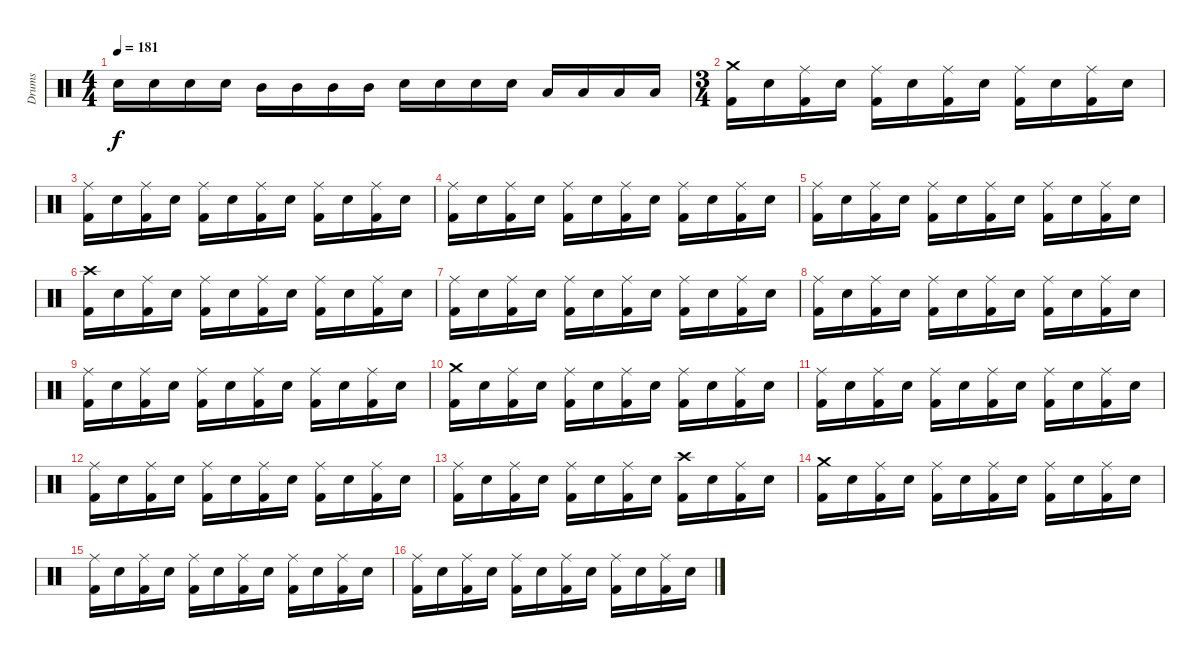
\track ("Drums" "Drums") {instrument percussion}
\staff {score}
\articulation defaults
\ts (4 4)
\tempo 181
\clef neutral
\ks c "Electric Snare (hit)".16{dy f} "Electric Snare (hit)".16 "Electric Snare (hit)".16 "Electric Snare (hit)".16 "Mid Tom (hit)".16 "Mid Tom (hit)".16 "Mid Tom (hit)".16 "Mid Tom (hit)".16 "Electric Snare (hit)".16 "Electric Snare (hit)".16 "Electric Snare (hit)".16 "Electric Snare (hit)".16 "Low Tom (hit)".16 "Low Tom (hit)".16 "Low Tom (hit)".16 "Low Tom (hit)".16
|
\ts (3 4)
("Crash medium (hit)" "Kick (hit) 2").16 "Electric Snare (hit)".16 ("Ride (middle)" "Kick (hit) 2").16 "Electric Snare (hit)".16 ("Ride (middle)" "Kick (hit) 2").16 "Electric Snare (hit)".16 ("Ride (middle)" "Kick (hit) 2").16 "Electric Snare (hit)".16 ("Ride (middle)" "Kick (hit) 2").16 "Electric Snare (hit)".16 ("Ride (middle)" "Kick (hit) 2").16 "Electric Snare (hit)".16 |
("Ride (middle)" "Kick (hit) 2").16 "Electric Snare (hit)".16 ("Ride (middle)" "Kick (hit) 2").16 "Electric Snare (hit)".16 ("Ride (middle)" "Kick (hit) 2").16 "Electric Snare (hit)".16 ("Ride (middle)" "Kick (hit) 2").16 "Electric Snare (hit)".16 ("Ride (middle)" "Kick (hit) 2").16 "Electric Snare (hit)".16 ("Ride (middle)" "Kick (hit) 2").16 "Electric Snare (hit)".16 |
("Ride (middle)" "Kick (hit) 2").16 "Electric Snare (hit)".16 ("Ride (middle)" "Kick (hit) 2").16 "Electric Snare (hit)".16 ("Ride (middle)" "Kick (hit) 2").16 "Electric Snare (hit)".16 ("Ride (middle)" "Kick (hit) 2").16 "Electric Snare (hit)".16 ("Ride (middle)" "Kick (hit) 2").16 "Electric Snare (hit)".16 ("Ride (middle)" "Kick (hit) 2").16 "Electric Snare (hit)".16 |
("Ride (middle)" "Kick (hit) 2").16 "Electric Snare (hit)".16 ("Ride (middle)" "Kick (hit) 2").16 "Electric Snare (hit)".16 ("Ride (middle)" "Kick (hit) 2").16 "Electric Snare (hit)".16 ("Ride (middle)" "Kick (hit) 2").16 "Electric Snare (hit)".16 ("Ride (middle)" "Kick (hit) 2").16 "Electric Snare (hit)".16 ("Ride (middle)" "Kick (hit) 2").16 "Electric Snare (hit)".16 |
("Crash high (hit)" "Kick (hit) 2").16 "Electric Snare (hit)".16 ("Ride (middle)" "Kick (hit) 2").16 "Electric Snare (hit)".16 ("Ride (middle)" "Kick (hit) 2").16 "Electric Snare (hit)".16 ("Ride (middle)" "Kick (hit) 2").16 "Electric Snare (hit)".16 ("Ride (middle)" "Kick (hit) 2").16 "Electric Snare (hit)".16 ("Ride (middle)" "Kick (hit) 2").16 "Electric Snare (hit)".16 |
("Ride (middle)" "Kick (hit) 2").16 "Electric Snare (hit)".16 ("Ride (middle)" "Kick (hit) 2").16 "Electric Snare (hit)".16 ("Ride (middle)" "Kick (hit) 2").16 "Electric Snare (hit)".16 ("Ride (middle)" "Kick (hit) 2").16 "Electric Snare (hit)".16 ("Ride (middle)" "Kick (hit) 2").16 "Electric Snare (hit)".16 ("Ride (middle)" "Kick (hit) 2").16 "Electric Snare (hit)".16 |
("Ride (middle)" "Kick (hit) 2").16 "Electric Snare (hit)".16 ("Ride (middle)" "Kick (hit) 2").16 "Electric Snare (hit)".16 ("Ride (middle)" "Kick (hit) 2").16 "Electric Snare (hit)".16 ("Ride (middle)" "Kick (hit) 2").16 "Electric Snare (hit)".16 ("Ride (middle)" "Kick (hit) 2").16 "Electric Snare (hit)".16 ("Ride (middle)" "Kick (hit) 2").16 "Electric Snare (hit)".16 |
("Ride (middle)" "Kick (hit) 2").16 "Electric Snare (hit)".16 ("Ride (middle)" "Kick (hit) 2").16 "Electric Snare (hit)".16 ("Ride (middle)" "Kick (hit) 2").16 "Electric Snare (hit)".16 ("Ride (middle)" "Kick (hit) 2").16 "Electric Snare (hit)".16 ("Ride (middle)" "Kick (hit) 2").16 "Electric Snare (hit)".16 ("Ride (middle)" "Kick (hit) 2").16 "Electric Snare (hit)".16 |
("Crash medium (hit)" "Kick (hit) 2").16 "Electric Snare (hit)".16 ("Ride (middle)" "Kick (hit) 2").16 "Electric Snare (hit)".16 ("Ride (middle)" "Kick (hit) 2").16 "Electric Snare (hit)".16 ("Ride (middle)" "Kick (hit) 2").16 "Electric Snare (hit)".16 ("Ride (middle)" "Kick (hit) 2").16 "Electric Snare (hit)".16 ("Ride (middle)" "Kick (hit) 2").16 "Electric Snare (hit)".16 |
("Ride (middle)" "Kick (hit) 2").16 "Electric Snare (hit)".16 ("Ride (middle)" "Kick (hit) 2").16 "Electric Snare (hit)".16 ("Ride (middle)" "Kick (hit) 2").16 "Electric Snare (hit)".16 ("Ride (middle)" "Kick (hit) 2").16 "Electric Snare (hit)".16 ("Ride (middle)" "Kick (hit) 2").16 "Electric Snare (hit)".16 ("Ride (middle)" "Kick (hit) 2").16 "Electric Snare (hit)".16 |
("Ride (middle)" "Kick (hit) 2").16 "Electric Snare (hit)".16 ("Ride (middle)" "Kick (hit) 2").16 "Electric Snare (hit)".16 ("Ride (middle)" "Kick (hit) 2").16 "Electric Snare (hit)".16 ("Ride (middle)" "Kick (hit) 2").16 "Electric Snare (hit)".16 ("Ride (middle)" "Kick (hit) 2").16 "Electric Snare (hit)".16 ("Ride (middle)" "Kick (hit) 2").16 "Electric Snare (hit)".16 |
("Ride (middle)" "Kick (hit) 2").16 "Electric Snare (hit)".16 ("Ride (middle)" "Kick (hit) 2").16 "Electric Snare (hit)".16 ("Ride (middle)" "Kick (hit) 2").16 "Electric Snare (hit)".16 ("Ride (middle)" "Kick (hit) 2").16 "Electric Snare (hit)".16 ("Crash high (hit)" "Kick (hit) 2").16 "Electric Snare (hit)".16 ("Ride (middle)" "Kick (hit) 2").16 "Electric Snare (hit)".16 |
("Crash medium (hit)" "Kick (hit) 2").16 "Electric Snare (hit)".16 ("Ride (middle)" "Kick (hit) 2").16 "Electric Snare (hit)".16 ("Ride (middle)" "Kick (hit) 2").16 "Electric Snare (hit)".16 ("Ride (middle)" "Kick (hit) 2").16 "Electric Snare (hit)".16 ("Ride (middle)" "Kick (hit) 2").16 "Electric Snare (hit)".16 ("Ride (middle)" "Kick (hit) 2").16 "Electric Snare (hit)".16 |
("Ride (middle)" "Kick (hit) 2").16 "Electric Snare (hit)".16 ("Ride (middle)" "Kick (hit) 2").16 "Electric Snare (hit)".16 ("Ride (middle)" "Kick (hit) 2").16 "Electric Snare (hit)".16 ("Ride (middle)" "Kick (hit) 2").16 "Electric Snare (hit)".16 ("Ride (middle)" "Kick (hit) 2").16 "Electric Snare (hit)".16 ("Ride (middle)" "Kick (hit) 2").16 "Electric Snare (hit)".16 |
("Ride (middle)" "Kick (hit) 2").16 "Electric Snare (hit)".16 ("Ride (middle)" "Kick (hit) 2").16 "Electric Snare (hit)".16 ("Ride (middle)" "Kick (hit) 2").16 "Electric Snare (hit)".16 ("Ride (middle)" "Kick (hit) 2").16 "Electric Snare (hit)".16 ("Ride (middle)" "Kick (hit) 2").16 "Electric Snare (hit)".16 ("Ride (middle)" "Kick (hit) 2").16 "Electric Snare (hit)".16
